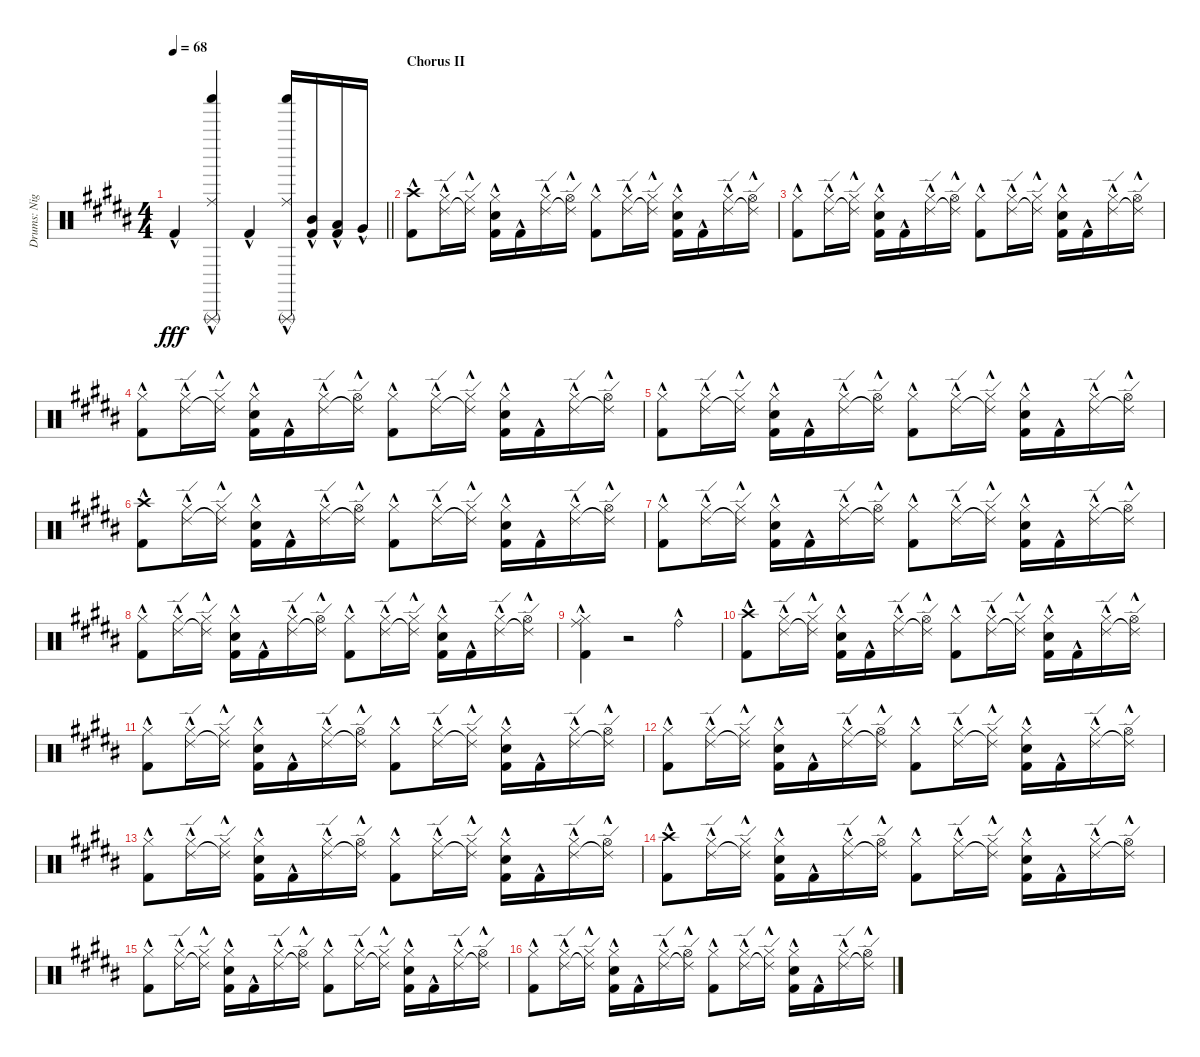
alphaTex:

\track ("Drums: Nigel" "Drums: Nig") {instrument percussion}
\staff {score}
\articulation defaults
\ts (4 4)
\tempo 68
\clef neutral
\barLineRight lightlight
\ks b "Kick (hit) 2"{hac}.4{dy fff}
("Ride (middle)"{hac} "Shaker (hit)"{hac} "Triangle (rnute)"{hac}).4 "Kick (hit) 2"{hac}.4 ("Ride (middle)"{hac} "Shaker (hit)"{hac} "Triangle (rnute)"{hac}).16 ("Mid Tom (hit)"{hac} "Kick (hit) 2"{hac}).16 ("Low Tom (hit)"{hac} "Kick (hit) 2"{hac}).16 "Very Low Tom (hit)"{hac}.16 |
\section ("" "Chorus II")
("Crash high (hit)"{hac} "Kick (hit) 2"{hac}).8 ("Ride (edge) 2"{hac} "Hi-Hat (closed)"{hac}).16 ("Ride (edge) 2"{t} "Hi-Hat (closed)"{hac}).16 ("Hi-Hat (closed)"{hac} "Electric Snare (hit)"{hac} "Kick (hit) 2"{hac}).16 "Kick (hit) 2"{hac}.16 ("Ride (edge) 2"{hac} "Hi-Hat (closed)"{hac}).16 ("Ride (edge) 2"{t} "Hi-Hat (open)"{hac}).16 ("Hi-Hat (closed)"{hac} "Kick (hit) 2"{hac}).8 ("Ride (edge) 2"{hac} "Hi-Hat (closed)"{hac}).16 ("Ride (edge) 2"{t} "Hi-Hat (closed)"{hac}).16 ("Hi-Hat (closed)"{hac} "Electric Snare (hit)"{hac} "Kick (hit) 2"{hac}).16 "Kick (hit) 2"{hac}.16 ("Ride (edge) 2"{hac} "Hi-Hat (closed)"{hac}).16 ("Ride (edge) 2"{t} "Hi-Hat (open)"{hac}).16 |
("Hi-Hat (closed)"{hac} "Kick (hit) 2"{hac}).8 ("Ride (edge) 2"{hac} "Hi-Hat (closed)"{hac}).16 ("Ride (edge) 2"{t} "Hi-Hat (closed)"{hac}).16 ("Hi-Hat (closed)"{hac} "Electric Snare (hit)"{hac} "Kick (hit) 2"{hac}).16 "Kick (hit) 2"{hac}.16 ("Ride (edge) 2"{hac} "Hi-Hat (closed)"{hac}).16 ("Ride (edge) 2"{t} "Hi-Hat (open)"{hac}).16 ("Hi-Hat (closed)"{hac} "Kick (hit) 2"{hac}).8 ("Ride (edge) 2"{hac} "Hi-Hat (closed)"{hac}).16 ("Ride (edge) 2"{t} "Hi-Hat (closed)"{hac}).16 ("Hi-Hat (closed)"{hac} "Electric Snare (hit)"{hac} "Kick (hit) 2"{hac}).16 "Kick (hit) 2"{hac}.16 ("Ride (edge) 2"{hac} "Hi-Hat (closed)"{hac}).16 ("Ride (edge) 2"{t} "Hi-Hat (open)"{hac}).16 |
("Hi-Hat (closed)"{hac} "Kick (hit) 2"{hac}).8 ("Ride (edge) 2"{hac} "Hi-Hat (closed)"{hac}).16 ("Ride (edge) 2"{t} "Hi-Hat (closed)"{hac}).16 ("Hi-Hat (closed)"{hac} "Electric Snare (hit)"{hac} "Kick (hit) 2"{hac}).16 "Kick (hit) 2"{hac}.16 ("Ride (edge) 2"{hac} "Hi-Hat (closed)"{hac}).16 ("Ride (edge) 2"{t} "Hi-Hat (open)"{hac}).16 ("Hi-Hat (closed)"{hac} "Kick (hit) 2"{hac}).8 ("Ride (edge) 2"{hac} "Hi-Hat (closed)"{hac}).16 ("Ride (edge) 2"{t} "Hi-Hat (closed)"{hac}).16 ("Hi-Hat (closed)"{hac} "Electric Snare (hit)"{hac} "Kick (hit) 2"{hac}).16 "Kick (hit) 2"{hac}.16 ("Ride (edge) 2"{hac} "Hi-Hat (closed)"{hac}).16 ("Ride (edge) 2"{t} "Hi-Hat (open)"{hac}).16 |
("Hi-Hat (closed)"{hac} "Kick (hit) 2"{hac}).8 ("Ride (edge) 2"{hac} "Hi-Hat (closed)"{hac}).16 ("Ride (edge) 2"{t} "Hi-Hat (closed)"{hac}).16 ("Hi-Hat (closed)"{hac} "Electric Snare (hit)"{hac} "Kick (hit) 2"{hac}).16 "Kick (hit) 2"{hac}.16 ("Ride (edge) 2"{hac} "Hi-Hat (closed)"{hac}).16 ("Ride (edge) 2"{t} "Hi-Hat (open)"{hac}).16 ("Hi-Hat (closed)"{hac} "Kick (hit) 2"{hac}).8 ("Ride (edge) 2"{hac} "Hi-Hat (closed)"{hac}).16 ("Ride (edge) 2"{t} "Hi-Hat (closed)"{hac}).16 ("Hi-Hat (closed)"{hac} "Electric Snare (hit)"{hac} "Kick (hit) 2"{hac}).16 "Kick (hit) 2"{hac}.16 ("Ride (edge) 2"{hac} "Hi-Hat (closed)"{hac}).16 ("Ride (edge) 2"{t} "Hi-Hat (open)"{hac}).16 |
("Crash high (hit)"{hac} "Kick (hit) 2"{hac}).8 ("Ride (edge) 2"{hac} "Hi-Hat (closed)"{hac}).16 ("Ride (edge) 2"{t} "Hi-Hat (closed)"{hac}).16 ("Hi-Hat (closed)"{hac} "Electric Snare (hit)"{hac} "Kick (hit) 2"{hac}).16 "Kick (hit) 2"{hac}.16 ("Ride (edge) 2"{hac} "Hi-Hat (closed)"{hac}).16 ("Ride (edge) 2"{t} "Hi-Hat (open)"{hac}).16 ("Hi-Hat (closed)"{hac} "Kick (hit) 2"{hac}).8 ("Ride (edge) 2"{hac} "Hi-Hat (closed)"{hac}).16 ("Ride (edge) 2"{t} "Hi-Hat (closed)"{hac}).16 ("Hi-Hat (closed)"{hac} "Electric Snare (hit)"{hac} "Kick (hit) 2"{hac}).16 "Kick (hit) 2"{hac}.16 ("Ride (edge) 2"{hac} "Hi-Hat (closed)"{hac}).16 ("Ride (edge) 2"{t} "Hi-Hat (open)"{hac}).16 |
("Hi-Hat (closed)"{hac} "Kick (hit) 2"{hac}).8 ("Ride (edge) 2"{hac} "Hi-Hat (closed)"{hac}).16 ("Ride (edge) 2"{t} "Hi-Hat (closed)"{hac}).16 ("Hi-Hat (closed)"{hac} "Electric Snare (hit)"{hac} "Kick (hit) 2"{hac}).16 "Kick (hit) 2"{hac}.16 ("Ride (edge) 2"{hac} "Hi-Hat (closed)"{hac}).16 ("Ride (edge) 2"{t} "Hi-Hat (open)"{hac}).16 ("Hi-Hat (closed)"{hac} "Kick (hit) 2"{hac}).8 ("Ride (edge) 2"{hac} "Hi-Hat (closed)"{hac}).16 ("Ride (edge) 2"{t} "Hi-Hat (closed)"{hac}).16 ("Hi-Hat (closed)"{hac} "Electric Snare (hit)"{hac} "Kick (hit) 2"{hac}).16 "Kick (hit) 2"{hac}.16 ("Ride (edge) 2"{hac} "Hi-Hat (closed)"{hac}).16 ("Ride (edge) 2"{t} "Hi-Hat (open)"{hac}).16 |
("Hi-Hat (closed)"{hac} "Kick (hit) 2"{hac}).8 ("Ride (edge) 2"{hac} "Hi-Hat (closed)"{hac}).16 ("Ride (edge) 2"{t} "Hi-Hat (closed)"{hac}).16 ("Hi-Hat (closed)"{hac} "Electric Snare (hit)"{hac} "Kick (hit) 2"{hac}).16 "Kick (hit) 2"{hac}.16 ("Ride (edge) 2"{hac} "Hi-Hat (closed)"{hac}).16 ("Ride (edge) 2"{t} "Hi-Hat (open)"{hac}).16 ("Hi-Hat (closed)"{hac} "Kick (hit) 2"{hac}).8 ("Ride (edge) 2"{hac} "Hi-Hat (closed)"{hac}).16 ("Ride (edge) 2"{t} "Hi-Hat (closed)"{hac}).16 ("Hi-Hat (closed)"{hac} "Electric Snare (hit)"{hac} "Kick (hit) 2"{hac}).16 "Kick (hit) 2"{hac}.16 ("Ride (edge) 2"{hac} "Hi-Hat (closed)"{hac}).16 ("Ride (edge) 2"{t} "Hi-Hat (open)"{hac}).16 |
("Ride (middle)"{hac} "Hi-Hat (closed)"{hac} "Kick (hit) 2"{hac}).4 r.2 "Ride (bell)"{hac}.4 |
("Crash high (hit)"{hac} "Kick (hit) 2"{hac}).8 ("Ride (edge) 2"{hac} "Hi-Hat (closed)"{hac}).16 ("Ride (edge) 2"{t} "Hi-Hat (closed)"{hac}).16 ("Hi-Hat (closed)"{hac} "Electric Snare (hit)"{hac} "Kick (hit) 2"{hac}).16 "Kick (hit) 2"{hac}.16 ("Ride (edge) 2"{hac} "Hi-Hat (closed)"{hac}).16 ("Ride (edge) 2"{t} "Hi-Hat (open)"{hac}).16 ("Hi-Hat (closed)"{hac} "Kick (hit) 2"{hac}).8 ("Ride (edge) 2"{hac} "Hi-Hat (closed)"{hac}).16 ("Ride (edge) 2"{t} "Hi-Hat (closed)"{hac}).16 ("Hi-Hat (closed)"{hac} "Electric Snare (hit)"{hac} "Kick (hit) 2"{hac}).16 "Kick (hit) 2"{hac}.16 ("Ride (edge) 2"{hac} "Hi-Hat (closed)"{hac}).16 ("Ride (edge) 2"{t} "Hi-Hat (open)"{hac}).16 |
("Hi-Hat (closed)"{hac} "Kick (hit) 2"{hac}).8 ("Ride (edge) 2"{hac} "Hi-Hat (closed)"{hac}).16 ("Ride (edge) 2"{t} "Hi-Hat (closed)"{hac}).16 ("Hi-Hat (closed)"{hac} "Electric Snare (hit)"{hac} "Kick (hit) 2"{hac}).16 "Kick (hit) 2"{hac}.16 ("Ride (edge) 2"{hac} "Hi-Hat (closed)"{hac}).16 ("Ride (edge) 2"{t} "Hi-Hat (open)"{hac}).16 ("Hi-Hat (closed)"{hac} "Kick (hit) 2"{hac}).8 ("Ride (edge) 2"{hac} "Hi-Hat (closed)"{hac}).16 ("Ride (edge) 2"{t} "Hi-Hat (closed)"{hac}).16 ("Hi-Hat (closed)"{hac} "Electric Snare (hit)"{hac} "Kick (hit) 2"{hac}).16 "Kick (hit) 2"{hac}.16 ("Ride (edge) 2"{hac} "Hi-Hat (closed)"{hac}).16 ("Ride (edge) 2"{t} "Hi-Hat (open)"{hac}).16 |
("Hi-Hat (closed)"{hac} "Kick (hit) 2"{hac}).8 ("Ride (edge) 2"{hac} "Hi-Hat (closed)"{hac}).16 ("Ride (edge) 2"{t} "Hi-Hat (closed)"{hac}).16 ("Hi-Hat (closed)"{hac} "Electric Snare (hit)"{hac} "Kick (hit) 2"{hac}).16 "Kick (hit) 2"{hac}.16 ("Ride (edge) 2"{hac} "Hi-Hat (closed)"{hac}).16 ("Ride (edge) 2"{t} "Hi-Hat (open)"{hac}).16 ("Hi-Hat (closed)"{hac} "Kick (hit) 2"{hac}).8 ("Ride (edge) 2"{hac} "Hi-Hat (closed)"{hac}).16 ("Ride (edge) 2"{t} "Hi-Hat (closed)"{hac}).16 ("Hi-Hat (closed)"{hac} "Electric Snare (hit)"{hac} "Kick (hit) 2"{hac}).16 "Kick (hit) 2"{hac}.16 ("Ride (edge) 2"{hac} "Hi-Hat (closed)"{hac}).16 ("Ride (edge) 2"{t} "Hi-Hat (open)"{hac}).16 |
("Hi-Hat (closed)"{hac} "Kick (hit) 2"{hac}).8 ("Ride (edge) 2"{hac} "Hi-Hat (closed)"{hac}).16 ("Ride (edge) 2"{t} "Hi-Hat (closed)"{hac}).16 ("Hi-Hat (closed)"{hac} "Electric Snare (hit)"{hac} "Kick (hit) 2"{hac}).16 "Kick (hit) 2"{hac}.16 ("Ride (edge) 2"{hac} "Hi-Hat (closed)"{hac}).16 ("Ride (edge) 2"{t} "Hi-Hat (open)"{hac}).16 ("Hi-Hat (closed)"{hac} "Kick (hit) 2"{hac}).8 ("Ride (edge) 2"{hac} "Hi-Hat (closed)"{hac}).16 ("Ride (edge) 2"{t} "Hi-Hat (closed)"{hac}).16 ("Hi-Hat (closed)"{hac} "Electric Snare (hit)"{hac} "Kick (hit) 2"{hac}).16 "Kick (hit) 2"{hac}.16 ("Ride (edge) 2"{hac} "Hi-Hat (closed)"{hac}).16 ("Ride (edge) 2"{t} "Hi-Hat (open)"{hac}).16 |
("Crash high (hit)"{hac} "Kick (hit) 2"{hac}).8 ("Ride (edge) 2"{hac} "Hi-Hat (closed)"{hac}).16 ("Ride (edge) 2"{t} "Hi-Hat (closed)"{hac}).16 ("Hi-Hat (closed)"{hac} "Electric Snare (hit)"{hac} "Kick (hit) 2"{hac}).16 "Kick (hit) 2"{hac}.16 ("Ride (edge) 2"{hac} "Hi-Hat (closed)"{hac}).16 ("Ride (edge) 2"{t} "Hi-Hat (open)"{hac}).16 ("Hi-Hat (closed)"{hac} "Kick (hit) 2"{hac}).8 ("Ride (edge) 2"{hac} "Hi-Hat (closed)"{hac}).16 ("Ride (edge) 2"{t} "Hi-Hat (closed)"{hac}).16 ("Hi-Hat (closed)"{hac} "Electric Snare (hit)"{hac} "Kick (hit) 2"{hac}).16 "Kick (hit) 2"{hac}.16 ("Ride (edge) 2"{hac} "Hi-Hat (closed)"{hac}).16 ("Ride (edge) 2"{t} "Hi-Hat (open)"{hac}).16 |
("Hi-Hat (closed)"{hac} "Kick (hit) 2"{hac}).8 ("Ride (edge) 2"{hac} "Hi-Hat (closed)"{hac}).16 ("Ride (edge) 2"{t} "Hi-Hat (closed)"{hac}).16 ("Hi-Hat (closed)"{hac} "Electric Snare (hit)"{hac} "Kick (hit) 2"{hac}).16 "Kick (hit) 2"{hac}.16 ("Ride (edge) 2"{hac} "Hi-Hat (closed)"{hac}).16 ("Ride (edge) 2"{t} "Hi-Hat (open)"{hac}).16 ("Hi-Hat (closed)"{hac} "Kick (hit) 2"{hac}).8 ("Ride (edge) 2"{hac} "Hi-Hat (closed)"{hac}).16 ("Ride (edge) 2"{t} "Hi-Hat (closed)"{hac}).16 ("Hi-Hat (closed)"{hac} "Electric Snare (hit)"{hac} "Kick (hit) 2"{hac}).16 "Kick (hit) 2"{hac}.16 ("Ride (edge) 2"{hac} "Hi-Hat (closed)"{hac}).16 ("Ride (edge) 2"{t} "Hi-Hat (open)"{hac}).16 |
("Hi-Hat (closed)"{hac} "Kick (hit) 2"{hac}).8 ("Ride (edge) 2"{hac} "Hi-Hat (closed)"{hac}).16 ("Ride (edge) 2"{t} "Hi-Hat (closed)"{hac}).16 ("Hi-Hat (closed)"{hac} "Electric Snare (hit)"{hac} "Kick (hit) 2"{hac}).16 "Kick (hit) 2"{hac}.16 ("Ride (edge) 2"{hac} "Hi-Hat (closed)"{hac}).16 ("Ride (edge) 2"{t} "Hi-Hat (open)"{hac}).16 ("Hi-Hat (closed)"{hac} "Kick (hit) 2"{hac}).8 ("Ride (edge) 2"{hac} "Hi-Hat (closed)"{hac}).16 ("Ride (edge) 2"{t} "Hi-Hat (closed)"{hac}).16 ("Hi-Hat (closed)"{hac} "Electric Snare (hit)"{hac} "Kick (hit) 2"{hac}).16 "Kick (hit) 2"{hac}.16 ("Ride (edge) 2"{hac} "Hi-Hat (closed)"{hac}).16 ("Ride (edge) 2"{t} "Hi-Hat (open)"{hac}).16
